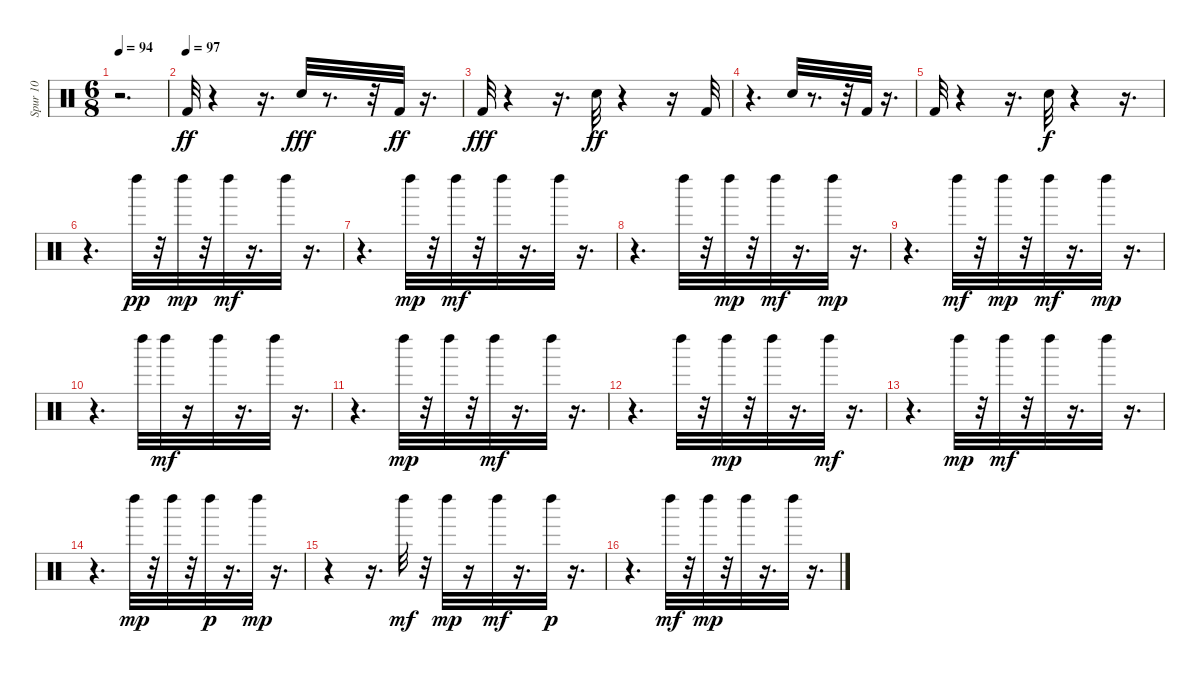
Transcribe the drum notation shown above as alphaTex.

\track ("Spur 10" "Spur 10") {instrument percussion}
\staff {score}
\articulation defaults
\ts (6 8)
\tempo 94
\clef neutral
\ks c
r.2{d dy ff} |
\tempo (97)
"Kick (hit) 2".32 r.4 r.16{d} "Electric Snare (hit)".32{dy fff} r.8{d} r.32 "Kick (hit) 2".32{dy ff} r.16{d} |
"Kick (hit) 2".32{dy fff} r.4 r.16{d} "Electric Snare (hit)".32{dy ff} r.4 r.16 "Kick (hit) 2".32 |
r.4{d} "Electric Snare (hit)".32 r.8{d} r.32 "Kick (hit) 2".32 r.16{d} |
"Kick (hit) 2".32 r.4 r.16{d} "Electric Snare (hit)".32{dy f} r.4 r.16{d} |
r.4{d} "Left Maraca (hit)".32{dy pp} r.32 "Left Maraca (hit)".32{dy mp} r.32 "Left Maraca (hit)".32{dy mf} r.16{d} "Left Maraca (hit)".32 r.16{d} |
r.4{d} "Left Maraca (hit)".32{dy mp} r.32 "Left Maraca (hit)".32{dy mf} r.32 "Left Maraca (hit)".32 r.16{d} "Left Maraca (hit)".32 r.16{d} |
r.4{d} "Left Maraca (hit)".32 r.32 "Left Maraca (hit)".32{dy mp} r.32 "Left Maraca (hit)".32{dy mf} r.16{d} "Left Maraca (hit)".32{dy mp} r.16{d} |
r.4{d} "Left Maraca (hit)".32{dy mf} r.32 "Left Maraca (hit)".32{dy mp} r.32 "Left Maraca (hit)".32{dy mf} r.16{d} "Left Maraca (hit)".32{dy mp} r.16{d} |
r.4{d} "Left Maraca (hit)".32 "Left Maraca (hit)".32{dy mf} r.16 "Left Maraca (hit)".32 r.16{d} "Left Maraca (hit)".32 r.16{d} |
r.4{d} "Left Maraca (hit)".32{dy mp} r.32 "Left Maraca (hit)".32 r.32 "Left Maraca (hit)".32{dy mf} r.16{d} "Left Maraca (hit)".32 r.16{d} |
r.4{d} "Left Maraca (hit)".32 r.32 "Left Maraca (hit)".32{dy mp} r.32 "Left Maraca (hit)".32 r.16{d} "Left Maraca (hit)".32{dy mf} r.16{d} |
r.4{d} "Left Maraca (hit)".32{dy mp} r.32 "Left Maraca (hit)".32{dy mf} r.32 "Left Maraca (hit)".32 r.16{d} "Left Maraca (hit)".32 r.16{d} |
r.4{d} "Left Maraca (hit)".32{dy mp} r.32 "Left Maraca (hit)".32 r.32 "Left Maraca (hit)".32{dy p} r.16{d} "Left Maraca (hit)".32{dy mp} r.16{d} |
r.4 r.16{d} "Left Maraca (hit)".32{dy mf} r.32 "Left Maraca (hit)".32{dy mp} r.16 "Left Maraca (hit)".32{dy mf} r.16{d} "Left Maraca (hit)".32{dy p} r.16{d} |
r.4{d} "Left Maraca (hit)".32{dy mf} r.32 "Left Maraca (hit)".32{dy mp} r.32 "Left Maraca (hit)".32 r.16{d} "Left Maraca (hit)".32 r.16{d}
